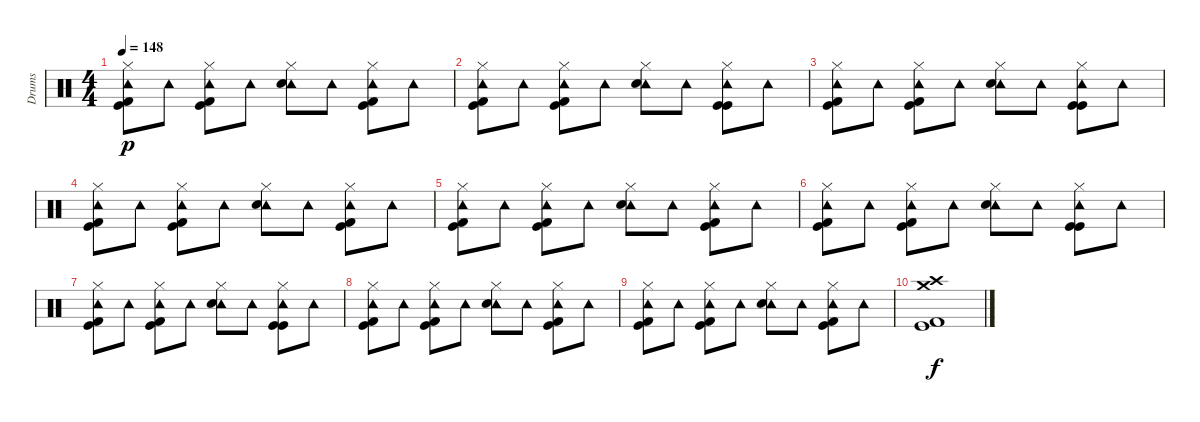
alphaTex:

\track ("Drums" "Drums") {instrument percussion}
\staff {score}
\articulation defaults
\ts (4 4)
\tempo 148
\clef neutral
\ks c
("Hi-Hat (closed)" "Tambourine (hit)" "Kick (hit) 2" "Kick (hit)").8{dy p} "Tambourine (hit)".8 ("Hi-Hat (closed)" "Tambourine (hit)" "Kick (hit)" "Kick (hit) 2").8 "Tambourine (hit)".8 ("Hi-Hat (closed)" "Tambourine (hit)" "Electric Snare (hit)").8 "Tambourine (hit)".8 ("Hi-Hat (closed)" "Tambourine (hit)" "Kick (hit)" "Kick (hit) 2").8 "Tambourine (hit)".8 |
("Hi-Hat (closed)" "Tambourine (hit)" "Kick (hit) 2" "Kick (hit)").8 "Tambourine (hit)".8 ("Hi-Hat (closed)" "Tambourine (hit)" "Kick (hit) 2" "Kick (hit)").8 "Tambourine (hit)".8 ("Hi-Hat (closed)" "Tambourine (hit)" "Electric Snare (hit)").8 "Tambourine (hit)".8 ("Hi-Hat (closed)" "Tambourine (hit)" "Kick (hit)" "Kick (hit)").8 "Tambourine (hit)".8 |
("Hi-Hat (closed)" "Tambourine (hit)" "Kick (hit) 2" "Kick (hit)").8 "Tambourine (hit)".8 ("Hi-Hat (closed)" "Tambourine (hit)" "Kick (hit) 2" "Kick (hit)").8 "Tambourine (hit)".8 ("Hi-Hat (closed)" "Tambourine (hit)" "Electric Snare (hit)").8 "Tambourine (hit)".8 ("Hi-Hat (closed)" "Tambourine (hit)" "Kick (hit)" "Kick (hit)").8 "Tambourine (hit)".8 |
("Hi-Hat (closed)" "Tambourine (hit)" "Kick (hit) 2" "Kick (hit)").8 "Tambourine (hit)".8 ("Hi-Hat (closed)" "Tambourine (hit)" "Kick (hit) 2" "Kick (hit)").8 "Tambourine (hit)".8 ("Hi-Hat (closed)" "Tambourine (hit)" "Electric Snare (hit)").8 "Tambourine (hit)".8 ("Hi-Hat (closed)" "Tambourine (hit)" "Kick (hit) 2" "Kick (hit)").8 "Tambourine (hit)".8 |
("Hi-Hat (closed)" "Tambourine (hit)" "Kick (hit) 2" "Kick (hit)").8 "Tambourine (hit)".8 ("Hi-Hat (closed)" "Tambourine (hit)" "Kick (hit)" "Kick (hit) 2").8 "Tambourine (hit)".8 ("Hi-Hat (closed)" "Tambourine (hit)" "Electric Snare (hit)").8 "Tambourine (hit)".8 ("Hi-Hat (closed)" "Tambourine (hit)" "Kick (hit)" "Kick (hit) 2").8 "Tambourine (hit)".8 |
("Hi-Hat (closed)" "Tambourine (hit)" "Kick (hit) 2" "Kick (hit)").8 "Tambourine (hit)".8 ("Hi-Hat (closed)" "Tambourine (hit)" "Kick (hit) 2" "Kick (hit)").8 "Tambourine (hit)".8 ("Hi-Hat (closed)" "Tambourine (hit)" "Electric Snare (hit)").8 "Tambourine (hit)".8 ("Hi-Hat (closed)" "Tambourine (hit)" "Kick (hit)" "Kick (hit)").8 "Tambourine (hit)".8 |
("Hi-Hat (closed)" "Tambourine (hit)" "Kick (hit) 2" "Kick (hit)").8 "Tambourine (hit)".8 ("Hi-Hat (closed)" "Tambourine (hit)" "Kick (hit) 2" "Kick (hit)").8 "Tambourine (hit)".8 ("Hi-Hat (closed)" "Tambourine (hit)" "Electric Snare (hit)").8 "Tambourine (hit)".8 ("Hi-Hat (closed)" "Tambourine (hit)" "Kick (hit)" "Kick (hit)").8 "Tambourine (hit)".8 |
("Hi-Hat (closed)" "Tambourine (hit)" "Kick (hit) 2" "Kick (hit)").8 "Tambourine (hit)".8 ("Hi-Hat (closed)" "Tambourine (hit)" "Kick (hit) 2" "Kick (hit)").8 "Tambourine (hit)".8 ("Hi-Hat (closed)" "Tambourine (hit)" "Electric Snare (hit)").8 "Tambourine (hit)".8 ("Hi-Hat (closed)" "Tambourine (hit)" "Kick (hit) 2" "Kick (hit)").8 "Tambourine (hit)".8 |
("Hi-Hat (closed)" "Tambourine (hit)" "Kick (hit) 2" "Kick (hit)").8 "Tambourine (hit)".8 ("Hi-Hat (closed)" "Tambourine (hit)" "Kick (hit)" "Kick (hit) 2").8 "Tambourine (hit)".8 ("Hi-Hat (closed)" "Tambourine (hit)" "Electric Snare (hit)").8 "Tambourine (hit)".8 ("Hi-Hat (closed)" "Tambourine (hit)" "Kick (hit)" "Kick (hit) 2").8 "Tambourine (hit)".8 |
("Crash high (hit)" "Crash medium (hit)" "Kick (hit) 2" "Kick (hit)").1{dy f}
